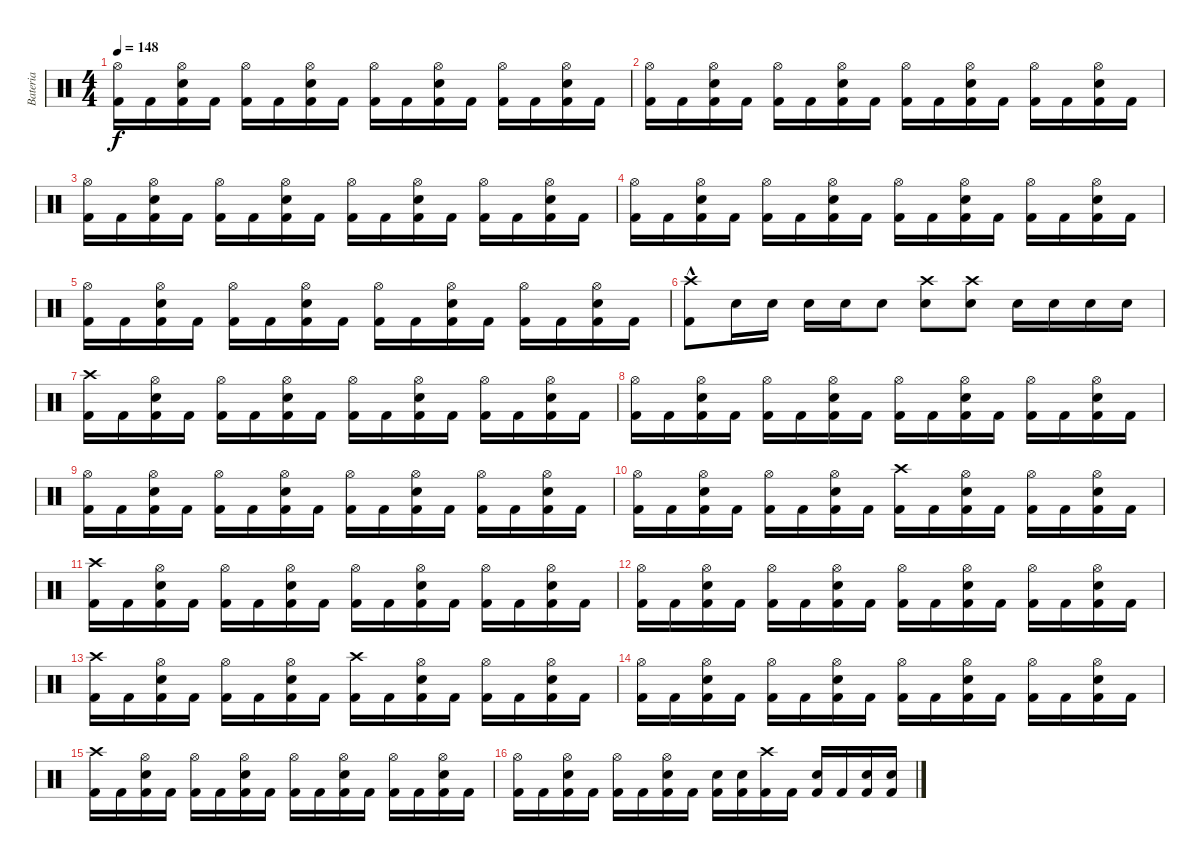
\track ("Bateria" "Bateria") {instrument percussion}
\staff {score}
\articulation defaults
\ts (4 4)
\tempo 148
\clef neutral
\ks c
("Kick (hit) 2" "Hi-Hat (open)").16{dy f} "Kick (hit) 2".16 ("Kick (hit) 2" "Snare (hit) 2" "Hi-Hat (open)").16 "Kick (hit) 2".16 ("Kick (hit) 2" "Hi-Hat (open)").16 "Kick (hit) 2".16 ("Kick (hit) 2" "Snare (hit) 2" "Hi-Hat (open)").16 "Kick (hit) 2".16 ("Kick (hit) 2" "Hi-Hat (open)").16 "Kick (hit) 2".16 ("Kick (hit) 2" "Snare (hit) 2" "Hi-Hat (open)").16 "Kick (hit) 2".16 ("Kick (hit) 2" "Hi-Hat (open)").16 "Kick (hit) 2".16 ("Kick (hit) 2" "Snare (hit) 2" "Hi-Hat (open)").16 "Kick (hit) 2".16 |
("Kick (hit) 2" "Hi-Hat (open)").16 "Kick (hit) 2".16 ("Kick (hit) 2" "Snare (hit) 2" "Hi-Hat (open)").16 "Kick (hit) 2".16 ("Kick (hit) 2" "Hi-Hat (open)").16 "Kick (hit) 2".16 ("Kick (hit) 2" "Snare (hit) 2" "Hi-Hat (open)").16 "Kick (hit) 2".16 ("Kick (hit) 2" "Hi-Hat (open)").16 "Kick (hit) 2".16 ("Kick (hit) 2" "Snare (hit) 2" "Hi-Hat (open)").16 "Kick (hit) 2".16 ("Kick (hit) 2" "Hi-Hat (open)").16 "Kick (hit) 2".16 ("Kick (hit) 2" "Snare (hit) 2" "Hi-Hat (open)").16 "Kick (hit) 2".16 |
("Kick (hit) 2" "Hi-Hat (open)").16 "Kick (hit) 2".16 ("Kick (hit) 2" "Snare (hit) 2" "Hi-Hat (open)").16 "Kick (hit) 2".16 ("Kick (hit) 2" "Hi-Hat (open)").16 "Kick (hit) 2".16 ("Kick (hit) 2" "Snare (hit) 2" "Hi-Hat (open)").16 "Kick (hit) 2".16 ("Kick (hit) 2" "Hi-Hat (open)").16 "Kick (hit) 2".16 ("Kick (hit) 2" "Snare (hit) 2" "Hi-Hat (open)").16 "Kick (hit) 2".16 ("Kick (hit) 2" "Hi-Hat (open)").16 "Kick (hit) 2".16 ("Kick (hit) 2" "Snare (hit) 2" "Hi-Hat (open)").16 "Kick (hit) 2".16 |
("Kick (hit) 2" "Hi-Hat (open)").16 "Kick (hit) 2".16 ("Kick (hit) 2" "Snare (hit) 2" "Hi-Hat (open)").16 "Kick (hit) 2".16 ("Kick (hit) 2" "Hi-Hat (open)").16 "Kick (hit) 2".16 ("Kick (hit) 2" "Snare (hit) 2" "Hi-Hat (open)").16 "Kick (hit) 2".16 ("Kick (hit) 2" "Hi-Hat (open)").16 "Kick (hit) 2".16 ("Kick (hit) 2" "Snare (hit) 2" "Hi-Hat (open)").16 "Kick (hit) 2".16 ("Kick (hit) 2" "Hi-Hat (open)").16 "Kick (hit) 2".16 ("Kick (hit) 2" "Snare (hit) 2" "Hi-Hat (open)").16 "Kick (hit) 2".16 |
("Kick (hit) 2" "Hi-Hat (open)").16 "Kick (hit) 2".16 ("Kick (hit) 2" "Snare (hit) 2" "Hi-Hat (open)").16 "Kick (hit) 2".16 ("Kick (hit) 2" "Hi-Hat (open)").16 "Kick (hit) 2".16 ("Kick (hit) 2" "Snare (hit) 2" "Hi-Hat (open)").16 "Kick (hit) 2".16 ("Kick (hit) 2" "Hi-Hat (open)").16 "Kick (hit) 2".16 ("Kick (hit) 2" "Snare (hit) 2" "Hi-Hat (open)").16 "Kick (hit) 2".16 ("Kick (hit) 2" "Hi-Hat (open)").16 "Kick (hit) 2".16 ("Kick (hit) 2" "Snare (hit) 2" "Hi-Hat (open)").16 "Kick (hit) 2".16 |
("Kick (hit) 2"{hac} "Crash high (hit)").8 "Snare (hit) 2".16 "Snare (hit) 2".16 "Snare (hit) 2".16 "Snare (hit) 2".16 "Snare (hit) 2".8 ("Snare (hit) 2" "Crash high (hit)").8 ("Snare (hit) 2" "Crash high (hit)").8 "Snare (hit) 2".16 "Snare (hit) 2".16 "Snare (hit) 2".16 "Snare (hit) 2".16 |
("Kick (hit) 2" "Crash high (hit)").16 "Kick (hit) 2".16 ("Kick (hit) 2" "Hi-Hat (open)" "Snare (hit) 2").16 "Kick (hit) 2".16 ("Kick (hit) 2" "Hi-Hat (open)").16 "Kick (hit) 2".16 ("Kick (hit) 2" "Hi-Hat (open)" "Snare (hit) 2").16 "Kick (hit) 2".16 ("Kick (hit) 2" "Hi-Hat (open)").16 "Kick (hit) 2".16 ("Kick (hit) 2" "Hi-Hat (open)" "Snare (hit) 2").16 "Kick (hit) 2".16 ("Kick (hit) 2" "Hi-Hat (open)").16 "Kick (hit) 2".16 ("Kick (hit) 2" "Hi-Hat (open)" "Snare (hit) 2").16 "Kick (hit) 2".16 |
("Kick (hit) 2" "Hi-Hat (open)").16 "Kick (hit) 2".16 ("Kick (hit) 2" "Hi-Hat (open)" "Snare (hit) 2").16 "Kick (hit) 2".16 ("Kick (hit) 2" "Hi-Hat (open)").16 "Kick (hit) 2".16 ("Kick (hit) 2" "Hi-Hat (open)" "Snare (hit) 2").16 "Kick (hit) 2".16 ("Kick (hit) 2" "Hi-Hat (open)").16 "Kick (hit) 2".16 ("Kick (hit) 2" "Hi-Hat (open)" "Snare (hit) 2").16 "Kick (hit) 2".16 ("Kick (hit) 2" "Hi-Hat (open)").16 "Kick (hit) 2".16 ("Kick (hit) 2" "Hi-Hat (open)" "Snare (hit) 2").16 "Kick (hit) 2".16 |
("Kick (hit) 2" "Hi-Hat (open)").16 "Kick (hit) 2".16 ("Kick (hit) 2" "Hi-Hat (open)" "Snare (hit) 2").16 "Kick (hit) 2".16 ("Kick (hit) 2" "Hi-Hat (open)").16 "Kick (hit) 2".16 ("Kick (hit) 2" "Hi-Hat (open)" "Snare (hit) 2").16 "Kick (hit) 2".16 ("Kick (hit) 2" "Hi-Hat (open)").16 "Kick (hit) 2".16 ("Kick (hit) 2" "Hi-Hat (open)" "Snare (hit) 2").16 "Kick (hit) 2".16 ("Kick (hit) 2" "Hi-Hat (open)").16 "Kick (hit) 2".16 ("Kick (hit) 2" "Hi-Hat (open)" "Snare (hit) 2").16 "Kick (hit) 2".16 |
("Kick (hit) 2" "Hi-Hat (open)").16 "Kick (hit) 2".16 ("Kick (hit) 2" "Hi-Hat (open)" "Snare (hit) 2").16 "Kick (hit) 2".16 ("Kick (hit) 2" "Hi-Hat (open)").16 "Kick (hit) 2".16 ("Kick (hit) 2" "Hi-Hat (open)" "Snare (hit) 2").16 "Kick (hit) 2".16 ("Kick (hit) 2" "Crash high (hit)").16 "Kick (hit) 2".16 ("Kick (hit) 2" "Hi-Hat (open)" "Snare (hit) 2").16 "Kick (hit) 2".16 ("Kick (hit) 2" "Hi-Hat (open)").16 "Kick (hit) 2".16 ("Kick (hit) 2" "Hi-Hat (open)" "Snare (hit) 2").16 "Kick (hit) 2".16 |
("Kick (hit) 2" "Crash high (hit)").16 "Kick (hit) 2".16 ("Kick (hit) 2" "Hi-Hat (open)" "Snare (hit) 2").16 "Kick (hit) 2".16 ("Kick (hit) 2" "Hi-Hat (open)").16 "Kick (hit) 2".16 ("Kick (hit) 2" "Hi-Hat (open)" "Snare (hit) 2").16 "Kick (hit) 2".16 ("Kick (hit) 2" "Hi-Hat (open)").16 "Kick (hit) 2".16 ("Kick (hit) 2" "Hi-Hat (open)" "Snare (hit) 2").16 "Kick (hit) 2".16 ("Kick (hit) 2" "Hi-Hat (open)").16 "Kick (hit) 2".16 ("Kick (hit) 2" "Hi-Hat (open)" "Snare (hit) 2").16 "Kick (hit) 2".16 |
("Kick (hit) 2" "Hi-Hat (open)").16 "Kick (hit) 2".16 ("Kick (hit) 2" "Hi-Hat (open)" "Snare (hit) 2").16 "Kick (hit) 2".16 ("Kick (hit) 2" "Hi-Hat (open)").16 "Kick (hit) 2".16 ("Kick (hit) 2" "Hi-Hat (open)" "Snare (hit) 2").16 "Kick (hit) 2".16 ("Kick (hit) 2" "Hi-Hat (open)").16 "Kick (hit) 2".16 ("Kick (hit) 2" "Hi-Hat (open)" "Snare (hit) 2").16 "Kick (hit) 2".16 ("Kick (hit) 2" "Hi-Hat (open)").16 "Kick (hit) 2".16 ("Kick (hit) 2" "Hi-Hat (open)" "Snare (hit) 2").16 "Kick (hit) 2".16 |
("Kick (hit) 2" "Crash high (hit)").16 "Kick (hit) 2".16 ("Kick (hit) 2" "Hi-Hat (open)" "Snare (hit) 2").16 "Kick (hit) 2".16 ("Kick (hit) 2" "Hi-Hat (open)").16 "Kick (hit) 2".16 ("Kick (hit) 2" "Hi-Hat (open)" "Snare (hit) 2").16 "Kick (hit) 2".16 ("Kick (hit) 2" "Crash high (hit)").16 "Kick (hit) 2".16 ("Kick (hit) 2" "Hi-Hat (open)" "Snare (hit) 2").16 "Kick (hit) 2".16 ("Kick (hit) 2" "Hi-Hat (open)").16 "Kick (hit) 2".16 ("Kick (hit) 2" "Hi-Hat (open)" "Snare (hit) 2").16 "Kick (hit) 2".16 |
("Kick (hit) 2" "Hi-Hat (open)").16 "Kick (hit) 2".16 ("Kick (hit) 2" "Hi-Hat (open)" "Snare (hit) 2").16 "Kick (hit) 2".16 ("Kick (hit) 2" "Hi-Hat (open)").16 "Kick (hit) 2".16 ("Kick (hit) 2" "Hi-Hat (open)" "Snare (hit) 2").16 "Kick (hit) 2".16 ("Kick (hit) 2" "Hi-Hat (open)").16 "Kick (hit) 2".16 ("Kick (hit) 2" "Hi-Hat (open)" "Snare (hit) 2").16 "Kick (hit) 2".16 ("Kick (hit) 2" "Hi-Hat (open)").16 "Kick (hit) 2".16 ("Kick (hit) 2" "Hi-Hat (open)" "Snare (hit) 2").16 "Kick (hit) 2".16 |
("Kick (hit) 2" "Crash high (hit)").16 "Kick (hit) 2".16 ("Kick (hit) 2" "Hi-Hat (open)" "Snare (hit) 2").16 "Kick (hit) 2".16 ("Kick (hit) 2" "Hi-Hat (open)").16 "Kick (hit) 2".16 ("Kick (hit) 2" "Hi-Hat (open)" "Snare (hit) 2").16 "Kick (hit) 2".16 ("Kick (hit) 2" "Hi-Hat (open)").16 "Kick (hit) 2".16 ("Kick (hit) 2" "Hi-Hat (open)" "Snare (hit) 2").16 "Kick (hit) 2".16 ("Kick (hit) 2" "Hi-Hat (open)").16 "Kick (hit) 2".16 ("Kick (hit) 2" "Hi-Hat (open)" "Snare (hit) 2").16 "Kick (hit) 2".16 |
("Kick (hit) 2" "Hi-Hat (open)").16 "Kick (hit) 2".16 ("Kick (hit) 2" "Hi-Hat (open)" "Snare (hit) 2").16 "Kick (hit) 2".16 ("Kick (hit) 2" "Hi-Hat (open)").16 "Kick (hit) 2".16 ("Kick (hit) 2" "Hi-Hat (open)" "Snare (hit) 2").16 "Kick (hit) 2".16 ("Kick (hit) 2" "Snare (hit) 2").16 ("Kick (hit) 2" "Snare (hit) 2").16 ("Kick (hit) 2" "Crash high (hit)").16 "Kick (hit) 2".16 ("Kick (hit) 2" "Snare (hit) 2").16 "Kick (hit) 2".16 ("Kick (hit) 2" "Snare (hit) 2").16 ("Kick (hit) 2" "Snare (hit) 2").16
